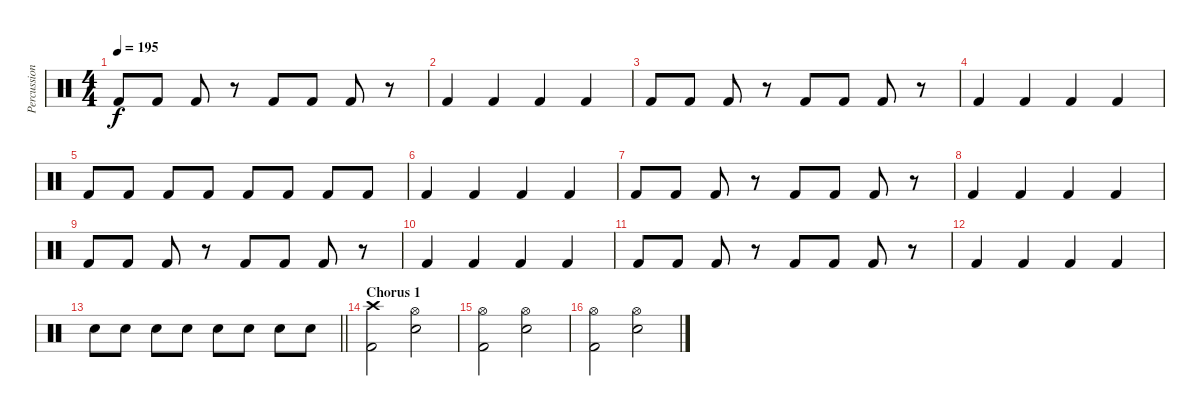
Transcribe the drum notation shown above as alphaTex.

\track ("Percussion" "Percussion") {instrument percussion}
\staff {score}
\articulation defaults
\ts (4 4)
\tempo 195
\clef neutral
\ks c "Kick (hit) 2".8{dy f} "Kick (hit) 2".8 "Kick (hit) 2".8
r.8 "Kick (hit) 2".8 "Kick (hit) 2".8 "Kick (hit) 2".8 r.8 |
"Kick (hit) 2".4 "Kick (hit) 2".4 "Kick (hit) 2".4 "Kick (hit) 2".4 |
"Kick (hit) 2".8 "Kick (hit) 2".8 "Kick (hit) 2".8 r.8 "Kick (hit) 2".8 "Kick (hit) 2".8 "Kick (hit) 2".8 r.8 |
"Kick (hit) 2".4 "Kick (hit) 2".4 "Kick (hit) 2".4 "Kick (hit) 2".4 |
"Kick (hit) 2".8 "Kick (hit) 2".8 "Kick (hit) 2".8 "Kick (hit) 2".8 "Kick (hit) 2".8 "Kick (hit) 2".8 "Kick (hit) 2".8 "Kick (hit) 2".8 |
"Kick (hit) 2".4 "Kick (hit) 2".4 "Kick (hit) 2".4 "Kick (hit) 2".4 |
"Kick (hit) 2".8 "Kick (hit) 2".8 "Kick (hit) 2".8 r.8 "Kick (hit) 2".8 "Kick (hit) 2".8 "Kick (hit) 2".8 r.8 |
"Kick (hit) 2".4 "Kick (hit) 2".4 "Kick (hit) 2".4 "Kick (hit) 2".4 |
"Kick (hit) 2".8 "Kick (hit) 2".8 "Kick (hit) 2".8 r.8 "Kick (hit) 2".8 "Kick (hit) 2".8 "Kick (hit) 2".8 r.8 |
"Kick (hit) 2".4 "Kick (hit) 2".4 "Kick (hit) 2".4 "Kick (hit) 2".4 |
"Kick (hit) 2".8 "Kick (hit) 2".8 "Kick (hit) 2".8 r.8 "Kick (hit) 2".8 "Kick (hit) 2".8 "Kick (hit) 2".8 r.8 |
"Kick (hit) 2".4 "Kick (hit) 2".4 "Kick (hit) 2".4 "Kick (hit) 2".4 |
\barLineRight lightlight "Snare (hit) 2".8 "Snare (hit) 2".8 "Snare (hit) 2".8 "Snare (hit) 2".8 "Snare (hit) 2".8 "Snare (hit) 2".8 "Snare (hit) 2".8 "Snare (hit) 2".8
|
\section ("" "Chorus 1")
("Crash high (hit)" "Kick (hit) 2").2 ("Hi-Hat (open)" "Snare (hit) 2").2 |
("Hi-Hat (open)" "Kick (hit) 2").2 ("Hi-Hat (open)" "Snare (hit) 2").2 |
("Hi-Hat (open)" "Kick (hit) 2").2 ("Hi-Hat (open)" "Snare (hit) 2").2
